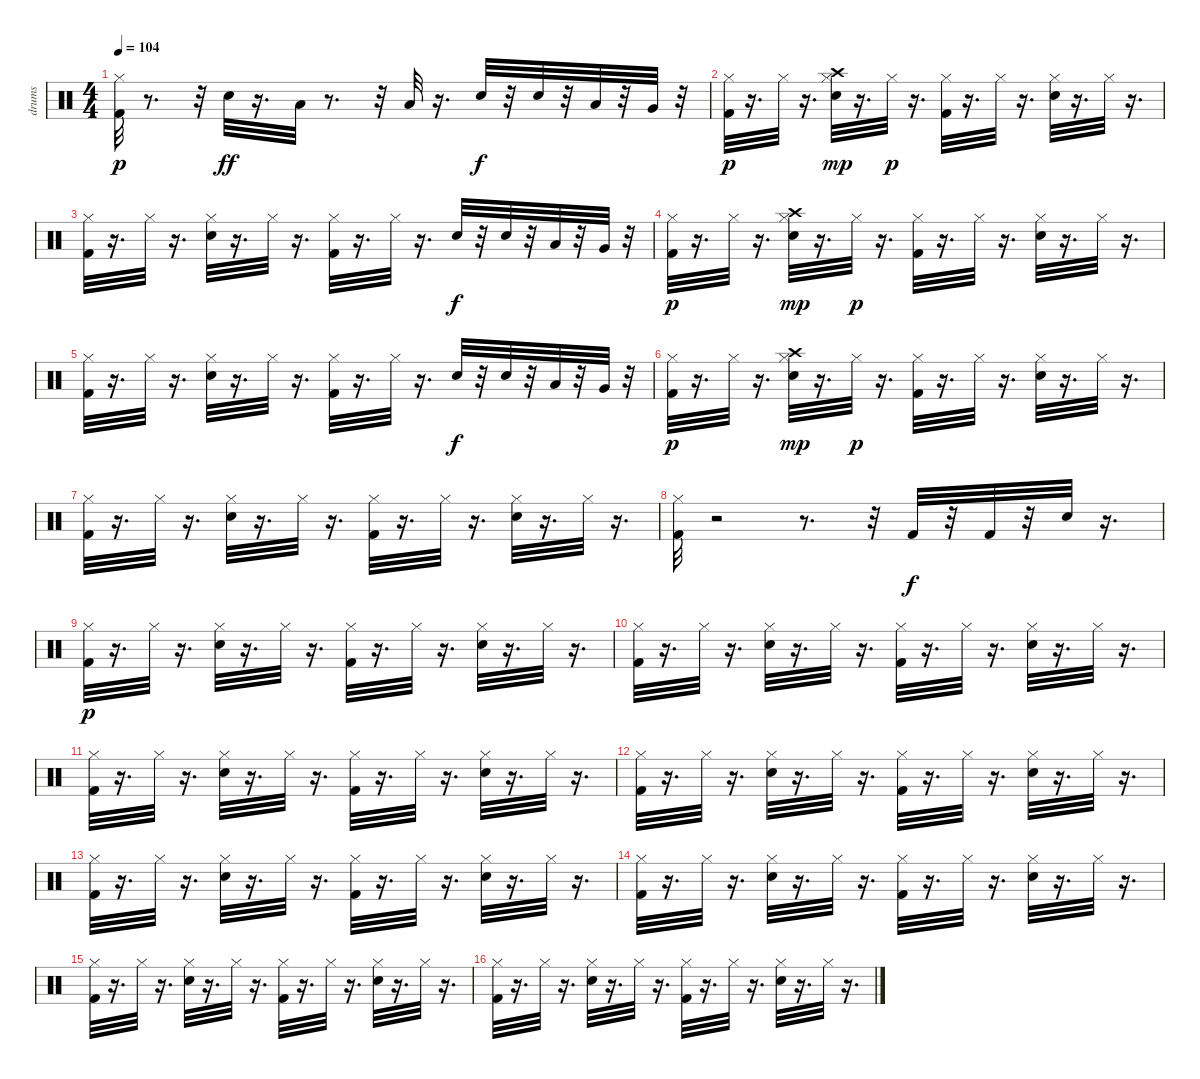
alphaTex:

\track ("drums" "drums") {instrument percussion}
\staff {score}
\articulation defaults
\ts (4 4)
\tempo 104
\clef neutral
\ks c
("Kick (hit) 2" "Hi-Hat (closed)").32{dy p} r.8{d} r.32 "Snare (hit) 2".32{dy ff} r.16{d} "Low Tom (hit)".32 r.8{d} r.32 "Low Tom (hit)".32 r.16{d} "Snare (hit) 2".32{dy f} r.32 "Snare (hit) 2".32 r.32 "Low Tom (hit)".32 r.32 "Very Low Tom (hit)".32 r.32 |
("Kick (hit) 2" "Hi-Hat (closed)").32{dy p} r.16{d} "Hi-Hat (closed)".32 r.16{d} ("Snare (hit) 2" "Hi-Hat (closed)" "Crash high (hit)").32{dy mp} r.16{d} "Hi-Hat (closed)".32{dy p} r.16{d} ("Kick (hit) 2" "Hi-Hat (closed)").32 r.16{d} "Hi-Hat (closed)".32 r.16{d} ("Snare (hit) 2" "Hi-Hat (closed)").32 r.16{d} "Hi-Hat (closed)".32 r.16{d} |
("Kick (hit) 2" "Hi-Hat (closed)").32 r.16{d} "Hi-Hat (closed)".32 r.16{d} ("Snare (hit) 2" "Hi-Hat (closed)").32 r.16{d} "Hi-Hat (closed)".32 r.16{d} ("Kick (hit) 2" "Hi-Hat (closed)").32 r.16{d} "Hi-Hat (closed)".32 r.16{d} "Snare (hit) 2".32{dy f} r.32 "Snare (hit) 2".32 r.32 "Low Tom (hit)".32 r.32 "Very Low Tom (hit)".32 r.32 |
("Kick (hit) 2" "Hi-Hat (closed)").32{dy p} r.16{d} "Hi-Hat (closed)".32 r.16{d} ("Snare (hit) 2" "Hi-Hat (closed)" "Crash high (hit)").32{dy mp} r.16{d} "Hi-Hat (closed)".32{dy p} r.16{d} ("Kick (hit) 2" "Hi-Hat (closed)").32 r.16{d} "Hi-Hat (closed)".32 r.16{d} ("Snare (hit) 2" "Hi-Hat (closed)").32 r.16{d} "Hi-Hat (closed)".32 r.16{d} |
("Kick (hit) 2" "Hi-Hat (closed)").32 r.16{d} "Hi-Hat (closed)".32 r.16{d} ("Snare (hit) 2" "Hi-Hat (closed)").32 r.16{d} "Hi-Hat (closed)".32 r.16{d} ("Kick (hit) 2" "Hi-Hat (closed)").32 r.16{d} "Hi-Hat (closed)".32 r.16{d} "Snare (hit) 2".32{dy f} r.32 "Snare (hit) 2".32 r.32 "Low Tom (hit)".32 r.32 "Very Low Tom (hit)".32 r.32 |
("Kick (hit) 2" "Hi-Hat (closed)").32{dy p} r.16{d} "Hi-Hat (closed)".32 r.16{d} ("Snare (hit) 2" "Hi-Hat (closed)" "Crash high (hit)").32{dy mp} r.16{d} "Hi-Hat (closed)".32{dy p} r.16{d} ("Kick (hit) 2" "Hi-Hat (closed)").32 r.16{d} "Hi-Hat (closed)".32 r.16{d} ("Snare (hit) 2" "Hi-Hat (closed)").32 r.16{d} "Hi-Hat (closed)".32 r.16{d} |
("Kick (hit) 2" "Hi-Hat (closed)").32 r.16{d} "Hi-Hat (closed)".32 r.16{d} ("Snare (hit) 2" "Hi-Hat (closed)").32 r.16{d} "Hi-Hat (closed)".32 r.16{d} ("Kick (hit) 2" "Hi-Hat (closed)").32 r.16{d} "Hi-Hat (closed)".32 r.16{d} ("Snare (hit) 2" "Hi-Hat (closed)").32 r.16{d} "Hi-Hat (closed)".32 r.16{d} |
("Kick (hit) 2" "Hi-Hat (closed)").32 r.2 r.8{d} r.32 "Kick (hit) 2".32{dy f} r.32 "Kick (hit) 2".32 r.32 "Snare (hit) 2".32 r.16{d} |
("Kick (hit) 2" "Hi-Hat (closed)").32{dy p} r.16{d} "Hi-Hat (closed)".32 r.16{d} ("Snare (hit) 2" "Hi-Hat (closed)").32 r.16{d} "Hi-Hat (closed)".32 r.16{d} ("Kick (hit) 2" "Hi-Hat (closed)").32 r.16{d} "Hi-Hat (closed)".32 r.16{d} ("Snare (hit) 2" "Hi-Hat (closed)").32 r.16{d} "Hi-Hat (closed)".32 r.16{d} |
("Kick (hit) 2" "Hi-Hat (closed)").32 r.16{d} "Hi-Hat (closed)".32 r.16{d} ("Snare (hit) 2" "Hi-Hat (closed)").32 r.16{d} "Hi-Hat (closed)".32 r.16{d} ("Kick (hit) 2" "Hi-Hat (closed)").32 r.16{d} "Hi-Hat (closed)".32 r.16{d} ("Snare (hit) 2" "Hi-Hat (closed)").32 r.16{d} "Hi-Hat (closed)".32 r.16{d} |
("Kick (hit) 2" "Hi-Hat (closed)").32 r.16{d} "Hi-Hat (closed)".32 r.16{d} ("Snare (hit) 2" "Hi-Hat (closed)").32 r.16{d} "Hi-Hat (closed)".32 r.16{d} ("Kick (hit) 2" "Hi-Hat (closed)").32 r.16{d} "Hi-Hat (closed)".32 r.16{d} ("Snare (hit) 2" "Hi-Hat (closed)").32 r.16{d} "Hi-Hat (closed)".32 r.16{d} |
("Kick (hit) 2" "Hi-Hat (closed)").32 r.16{d} "Hi-Hat (closed)".32 r.16{d} ("Snare (hit) 2" "Hi-Hat (closed)").32 r.16{d} "Hi-Hat (closed)".32 r.16{d} ("Kick (hit) 2" "Hi-Hat (closed)").32 r.16{d} "Hi-Hat (closed)".32 r.16{d} ("Snare (hit) 2" "Hi-Hat (closed)").32 r.16{d} "Hi-Hat (closed)".32 r.16{d} |
("Kick (hit) 2" "Hi-Hat (closed)").32 r.16{d} "Hi-Hat (closed)".32 r.16{d} ("Snare (hit) 2" "Hi-Hat (closed)").32 r.16{d} "Hi-Hat (closed)".32 r.16{d} ("Kick (hit) 2" "Hi-Hat (closed)").32 r.16{d} "Hi-Hat (closed)".32 r.16{d} ("Snare (hit) 2" "Hi-Hat (closed)").32 r.16{d} "Hi-Hat (closed)".32 r.16{d} |
("Kick (hit) 2" "Hi-Hat (closed)").32 r.16{d} "Hi-Hat (closed)".32 r.16{d} ("Snare (hit) 2" "Hi-Hat (closed)").32 r.16{d} "Hi-Hat (closed)".32 r.16{d} ("Kick (hit) 2" "Hi-Hat (closed)").32 r.16{d} "Hi-Hat (closed)".32 r.16{d} ("Snare (hit) 2" "Hi-Hat (closed)").32 r.16{d} "Hi-Hat (closed)".32 r.16{d} |
("Kick (hit) 2" "Hi-Hat (closed)").32 r.16{d} "Hi-Hat (closed)".32 r.16{d} ("Snare (hit) 2" "Hi-Hat (closed)").32 r.16{d} "Hi-Hat (closed)".32 r.16{d} ("Kick (hit) 2" "Hi-Hat (closed)").32 r.16{d} "Hi-Hat (closed)".32 r.16{d} ("Snare (hit) 2" "Hi-Hat (closed)").32 r.16{d} "Hi-Hat (closed)".32 r.16{d} |
("Kick (hit) 2" "Hi-Hat (closed)").32 r.16{d} "Hi-Hat (closed)".32 r.16{d} ("Snare (hit) 2" "Hi-Hat (closed)").32 r.16{d} "Hi-Hat (closed)".32 r.16{d} ("Kick (hit) 2" "Hi-Hat (closed)").32 r.16{d} "Hi-Hat (closed)".32 r.16{d} ("Snare (hit) 2" "Hi-Hat (closed)").32 r.16{d} "Hi-Hat (closed)".32 r.16{d}
